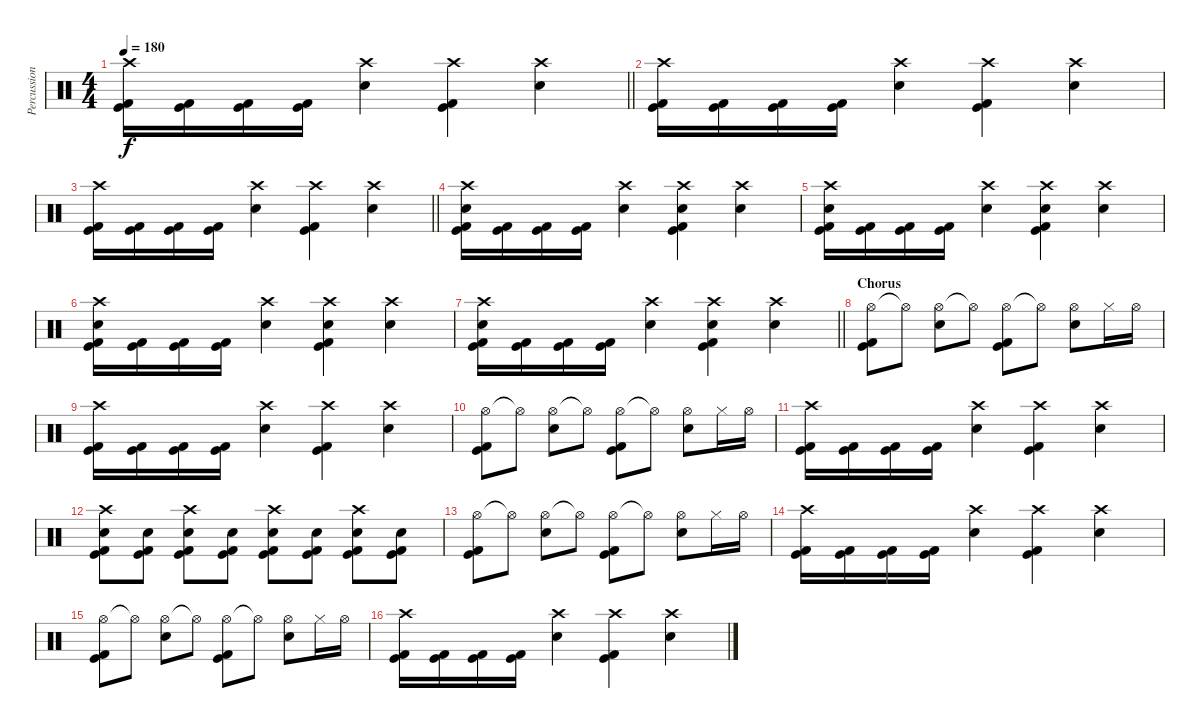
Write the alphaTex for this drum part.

\track ("Percussion" "Percussion") {instrument percussion}
\staff {score}
\articulation defaults
\ts (4 4)
\tempo 180
\clef neutral
\barLineRight lightlight
\ks c
("Crash high (hit)" "Kick (hit) 2" "Kick (hit)").16{dy f} ("Kick (hit) 2" "Kick (hit)").16 ("Kick (hit) 2" "Kick (hit)").16 ("Kick (hit) 2" "Kick (hit)").16 ("Crash high (hit)" "Electric Snare (hit)").4 ("Crash high (hit)" "Kick (hit) 2" "Kick (hit)").4 ("Crash high (hit)" "Electric Snare (hit)").4 |
("Crash high (hit)" "Kick (hit) 2" "Kick (hit)").16 ("Kick (hit) 2" "Kick (hit)").16 ("Kick (hit) 2" "Kick (hit)").16 ("Kick (hit) 2" "Kick (hit)").16 ("Crash high (hit)" "Electric Snare (hit)").4 ("Crash high (hit)" "Kick (hit) 2" "Kick (hit)").4 ("Crash high (hit)" "Electric Snare (hit)").4 |
\barLineRight lightlight
("Crash high (hit)" "Kick (hit) 2" "Kick (hit)").16 ("Kick (hit) 2" "Kick (hit)").16 ("Kick (hit) 2" "Kick (hit)").16 ("Kick (hit) 2" "Kick (hit)").16 ("Crash high (hit)" "Electric Snare (hit)").4 ("Crash high (hit)" "Kick (hit) 2" "Kick (hit)").4 ("Crash high (hit)" "Electric Snare (hit)").4 |
("Crash high (hit)" "Electric Snare (hit)" "Kick (hit) 2" "Kick (hit)").16 ("Kick (hit) 2" "Kick (hit)").16 ("Kick (hit) 2" "Kick (hit)").16 ("Kick (hit) 2" "Kick (hit)").16 ("Crash high (hit)" "Electric Snare (hit)").4 ("Crash high (hit)" "Electric Snare (hit)" "Kick (hit) 2" "Kick (hit)").4 ("Crash high (hit)" "Electric Snare (hit)").4 |
("Crash high (hit)" "Electric Snare (hit)" "Kick (hit) 2" "Kick (hit)").16 ("Kick (hit) 2" "Kick (hit)").16 ("Kick (hit) 2" "Kick (hit)").16 ("Kick (hit) 2" "Kick (hit)").16 ("Crash high (hit)" "Electric Snare (hit)").4 ("Crash high (hit)" "Electric Snare (hit)" "Kick (hit) 2" "Kick (hit)").4 ("Crash high (hit)" "Electric Snare (hit)").4 |
("Crash high (hit)" "Electric Snare (hit)" "Kick (hit) 2" "Kick (hit)").16 ("Kick (hit) 2" "Kick (hit)").16 ("Kick (hit) 2" "Kick (hit)").16 ("Kick (hit) 2" "Kick (hit)").16 ("Crash high (hit)" "Electric Snare (hit)").4 ("Crash high (hit)" "Electric Snare (hit)" "Kick (hit) 2" "Kick (hit)").4 ("Crash high (hit)" "Electric Snare (hit)").4 |
\barLineRight lightlight
("Crash high (hit)" "Electric Snare (hit)" "Kick (hit) 2" "Kick (hit)").16 ("Kick (hit) 2" "Kick (hit)").16 ("Kick (hit) 2" "Kick (hit)").16 ("Kick (hit) 2" "Kick (hit)").16 ("Crash high (hit)" "Electric Snare (hit)").4 ("Crash high (hit)" "Electric Snare (hit)" "Kick (hit) 2" "Kick (hit)").4 ("Crash high (hit)" "Electric Snare (hit)").4 |
\section ("" "Chorus")
("Hi-Hat (open)" "Kick (hit) 2" "Kick (hit)").8 "Hi-Hat (open)"{t}.8 ("Hi-Hat (open)" "Electric Snare (hit)").8 "Hi-Hat (open)"{t}.8 ("Hi-Hat (open)" "Kick (hit) 2" "Kick (hit)").8 "Hi-Hat (open)"{t}.8 ("Hi-Hat (open)" "Electric Snare (hit)").8 "Hi-Hat (closed)".16 "Hi-Hat (open)".16 |
("Crash high (hit)" "Kick (hit) 2" "Kick (hit)").16 ("Kick (hit) 2" "Kick (hit)").16 ("Kick (hit) 2" "Kick (hit)").16 ("Kick (hit) 2" "Kick (hit)").16 ("Crash high (hit)" "Electric Snare (hit)").4 ("Crash high (hit)" "Kick (hit) 2" "Kick (hit)").4 ("Crash high (hit)" "Electric Snare (hit)").4 |
("Hi-Hat (open)" "Kick (hit) 2" "Kick (hit)").8 "Hi-Hat (open)"{t}.8 ("Hi-Hat (open)" "Electric Snare (hit)").8 "Hi-Hat (open)"{t}.8 ("Hi-Hat (open)" "Kick (hit) 2" "Kick (hit)").8 "Hi-Hat (open)"{t}.8 ("Hi-Hat (open)" "Electric Snare (hit)").8 "Hi-Hat (closed)".16 "Hi-Hat (open)".16 |
("Crash high (hit)" "Kick (hit) 2" "Kick (hit)").16 ("Kick (hit) 2" "Kick (hit)").16 ("Kick (hit) 2" "Kick (hit)").16 ("Kick (hit) 2" "Kick (hit)").16 ("Crash high (hit)" "Electric Snare (hit)").4 ("Crash high (hit)" "Kick (hit) 2" "Kick (hit)").4 ("Crash high (hit)" "Electric Snare (hit)").4 |
("Crash high (hit)" "Electric Snare (hit)" "Kick (hit) 2" "Kick (hit)").8 ("Electric Snare (hit)" "Kick (hit) 2" "Kick (hit)").8 ("Crash high (hit)" "Electric Snare (hit)" "Kick (hit) 2" "Kick (hit)").8 ("Electric Snare (hit)" "Kick (hit) 2" "Kick (hit)").8 ("Crash high (hit)" "Electric Snare (hit)" "Kick (hit) 2" "Kick (hit)").8 ("Electric Snare (hit)" "Kick (hit) 2" "Kick (hit)").8 ("Crash high (hit)" "Electric Snare (hit)" "Kick (hit) 2" "Kick (hit)").8 ("Electric Snare (hit)" "Kick (hit) 2" "Kick (hit)").8 |
("Hi-Hat (open)" "Kick (hit) 2" "Kick (hit)").8 "Hi-Hat (open)"{t}.8 ("Hi-Hat (open)" "Electric Snare (hit)").8 "Hi-Hat (open)"{t}.8 ("Hi-Hat (open)" "Kick (hit) 2" "Kick (hit)").8 "Hi-Hat (open)"{t}.8 ("Hi-Hat (open)" "Electric Snare (hit)").8 "Hi-Hat (closed)".16 "Hi-Hat (open)".16 |
("Crash high (hit)" "Kick (hit) 2" "Kick (hit)").16 ("Kick (hit) 2" "Kick (hit)").16 ("Kick (hit) 2" "Kick (hit)").16 ("Kick (hit) 2" "Kick (hit)").16 ("Crash high (hit)" "Electric Snare (hit)").4 ("Crash high (hit)" "Kick (hit) 2" "Kick (hit)").4 ("Crash high (hit)" "Electric Snare (hit)").4 |
("Hi-Hat (open)" "Kick (hit) 2" "Kick (hit)").8 "Hi-Hat (open)"{t}.8 ("Hi-Hat (open)" "Electric Snare (hit)").8 "Hi-Hat (open)"{t}.8 ("Hi-Hat (open)" "Kick (hit) 2" "Kick (hit)").8 "Hi-Hat (open)"{t}.8 ("Hi-Hat (open)" "Electric Snare (hit)").8 "Hi-Hat (closed)".16 "Hi-Hat (open)".16 |
("Crash high (hit)" "Kick (hit) 2" "Kick (hit)").16 ("Kick (hit) 2" "Kick (hit)").16 ("Kick (hit) 2" "Kick (hit)").16 ("Kick (hit) 2" "Kick (hit)").16 ("Crash high (hit)" "Electric Snare (hit)").4 ("Crash high (hit)" "Kick (hit) 2" "Kick (hit)").4 ("Crash high (hit)" "Electric Snare (hit)").4
